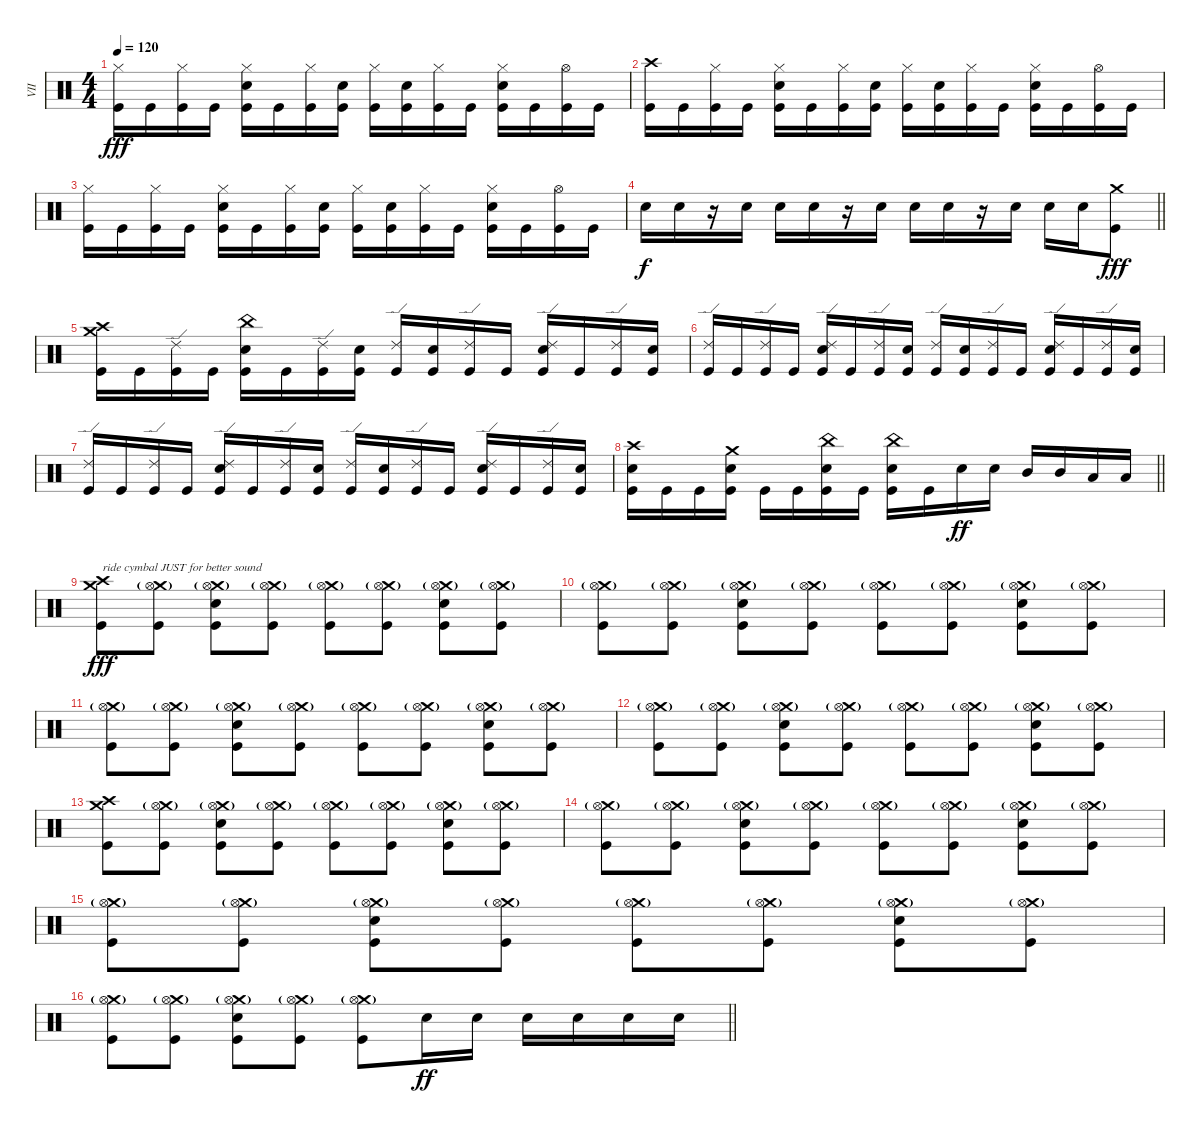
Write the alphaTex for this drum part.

\track ("VII" "VII") {instrument percussion}
\staff {score}
\articulation defaults
\ts (4 4)
\tempo 120
\clef neutral
\ks c
("Hi-Hat (closed)" "Kick (hit)").16{dy fff} "Kick (hit)".16 ("Hi-Hat (closed)" "Kick (hit)").16 "Kick (hit)".16 ("Hi-Hat (closed)" "Snare (hit) 2" "Kick (hit)").16 "Kick (hit)".16 ("Hi-Hat (closed)" "Kick (hit)").16 ("Snare (hit) 2" "Kick (hit)").16 ("Hi-Hat (closed)" "Kick (hit)").16 ("Snare (hit) 2" "Kick (hit)").16 ("Hi-Hat (closed)" "Kick (hit)").16 "Kick (hit)".16 ("Hi-Hat (closed)" "Snare (hit) 2" "Kick (hit)").16 "Kick (hit)".16 ("Hi-Hat (open)" "Kick (hit)").16 "Kick (hit)".16 |
("Crash high (hit)" "Kick (hit)").16 "Kick (hit)".16 ("Hi-Hat (closed)" "Kick (hit)").16 "Kick (hit)".16 ("Hi-Hat (closed)" "Snare (hit) 2" "Kick (hit)").16 "Kick (hit)".16 ("Hi-Hat (closed)" "Kick (hit)").16 ("Snare (hit) 2" "Kick (hit)").16 ("Hi-Hat (closed)" "Kick (hit)").16 ("Snare (hit) 2" "Kick (hit)").16 ("Hi-Hat (closed)" "Kick (hit)").16 "Kick (hit)".16 ("Hi-Hat (closed)" "Snare (hit) 2" "Kick (hit)").16 "Kick (hit)".16 ("Hi-Hat (open)" "Kick (hit)").16 "Kick (hit)".16 |
("Hi-Hat (closed)" "Kick (hit)").16 "Kick (hit)".16 ("Hi-Hat (closed)" "Kick (hit)").16 "Kick (hit)".16 ("Hi-Hat (closed)" "Snare (hit) 2" "Kick (hit)").16 "Kick (hit)".16 ("Hi-Hat (closed)" "Kick (hit)").16 ("Snare (hit) 2" "Kick (hit)").16 ("Hi-Hat (closed)" "Kick (hit)").16 ("Snare (hit) 2" "Kick (hit)").16 ("Hi-Hat (closed)" "Kick (hit)").16 "Kick (hit)".16 ("Hi-Hat (closed)" "Snare (hit) 2" "Kick (hit)").16 "Kick (hit)".16 ("Hi-Hat (open)" "Kick (hit)").16 "Kick (hit)".16 |
\barLineRight lightlight "Snare (hit) 2".16{dy f} "Snare (hit) 2".16
r.16 "Snare (hit) 2".16 "Snare (hit) 2".16 "Snare (hit) 2".16 r.16 "Snare (hit) 2".16 "Snare (hit) 2".16 "Snare (hit) 2".16 r.16 "Snare (hit) 2".16 "Snare (hit) 2".16 "Snare (hit) 2".16 ("Crash medium (hit)" "Kick (hit)").8{dy fff} |
("Crash high (hit)" "Crash medium (hit)" "Kick (hit)").16 "Kick (hit)".16 ("Ride (edge) 2" "Kick (hit)").16 "Kick (hit)".16 ("China (hit)" "Snare (hit) 2" "Kick (hit)").16 "Kick (hit)".16 ("Ride (edge) 2" "Kick (hit)").16 ("Snare (hit) 2" "Kick (hit)").16 ("Ride (edge) 2" "Kick (hit)").16 ("Snare (hit) 2" "Kick (hit)").16 ("Ride (edge) 2" "Kick (hit)").16 "Kick (hit)".16 ("Ride (edge) 2" "Snare (hit) 2" "Kick (hit)").16 "Kick (hit)".16 ("Ride (edge) 2" "Kick (hit)").16 ("Snare (hit) 2" "Kick (hit)").16 |
("Ride (edge) 2" "Kick (hit)").16 "Kick (hit)".16 ("Ride (edge) 2" "Kick (hit)").16 "Kick (hit)".16 ("Ride (edge) 2" "Snare (hit) 2" "Kick (hit)").16 "Kick (hit)".16 ("Ride (edge) 2" "Kick (hit)").16 ("Snare (hit) 2" "Kick (hit)").16 ("Ride (edge) 2" "Kick (hit)").16 ("Snare (hit) 2" "Kick (hit)").16 ("Ride (edge) 2" "Kick (hit)").16 "Kick (hit)".16 ("Ride (edge) 2" "Snare (hit) 2" "Kick (hit)").16 "Kick (hit)".16 ("Ride (edge) 2" "Kick (hit)").16 ("Snare (hit) 2" "Kick (hit)").16 |
("Ride (edge) 2" "Kick (hit)").16 "Kick (hit)".16 ("Ride (edge) 2" "Kick (hit)").16 "Kick (hit)".16 ("Ride (edge) 2" "Snare (hit) 2" "Kick (hit)").16 "Kick (hit)".16 ("Ride (edge) 2" "Kick (hit)").16 ("Snare (hit) 2" "Kick (hit)").16 ("Ride (edge) 2" "Kick (hit)").16 ("Snare (hit) 2" "Kick (hit)").16 ("Ride (edge) 2" "Kick (hit)").16 "Kick (hit)".16 ("Ride (edge) 2" "Snare (hit) 2" "Kick (hit)").16 "Kick (hit)".16 ("Ride (edge) 2" "Kick (hit)").16 ("Snare (hit) 2" "Kick (hit)").16 |
\barLineRight lightlight
("Crash high (hit)" "Snare (hit) 2" "Kick (hit)").16 "Kick (hit)".16 "Kick (hit)".16 ("Crash medium (hit)" "Snare (hit) 2" "Kick (hit)").16 "Kick (hit)".16 "Kick (hit)".16 ("China (hit)" "Snare (hit) 2" "Kick (hit)").16 "Kick (hit)".16 ("China (hit)" "Snare (hit) 2" "Kick (hit)").16 "Kick (hit)".16 "Snare (hit) 2".16{dy ff} "Snare (hit) 2".16 "Mid Tom (hit)".16 "Mid Tom (hit)".16 "Low Tom (hit)".16 "Low Tom (hit)".16 |
("Crash high (hit)" "Crash medium (hit)" "Kick (hit)").8{txt "ride cymbal JUST for better sound" dy fff} ("Crash medium (hit)"{g} "Hi-Hat (open)" "Kick (hit)").8 ("Crash medium (hit)"{g} "Hi-Hat (open)" "Snare (hit) 2" "Kick (hit)").8 ("Crash medium (hit)"{g} "Hi-Hat (open)" "Kick (hit)").8 ("Crash medium (hit)"{g} "Hi-Hat (open)" "Kick (hit)").8 ("Crash medium (hit)"{g} "Hi-Hat (open)" "Kick (hit)").8 ("Crash medium (hit)"{g} "Hi-Hat (open)" "Snare (hit) 2" "Kick (hit)").8 ("Crash medium (hit)"{g} "Hi-Hat (open)" "Kick (hit)").8 |
("Crash medium (hit)"{g} "Hi-Hat (open)" "Kick (hit)").8 ("Crash medium (hit)"{g} "Hi-Hat (open)" "Kick (hit)").8 ("Crash medium (hit)"{g} "Hi-Hat (open)" "Snare (hit) 2" "Kick (hit)").8 ("Crash medium (hit)"{g} "Hi-Hat (open)" "Kick (hit)").8 ("Crash medium (hit)"{g} "Hi-Hat (open)" "Kick (hit)").8 ("Crash medium (hit)"{g} "Hi-Hat (open)" "Kick (hit)").8 ("Crash medium (hit)"{g} "Hi-Hat (open)" "Snare (hit) 2" "Kick (hit)").8 ("Crash medium (hit)"{g} "Hi-Hat (open)" "Kick (hit)").8 |
("Crash medium (hit)"{g} "Hi-Hat (open)" "Kick (hit)").8 ("Crash medium (hit)"{g} "Hi-Hat (open)" "Kick (hit)").8 ("Crash medium (hit)"{g} "Hi-Hat (open)" "Snare (hit) 2" "Kick (hit)").8 ("Crash medium (hit)"{g} "Hi-Hat (open)" "Kick (hit)").8 ("Crash medium (hit)"{g} "Hi-Hat (open)" "Kick (hit)").8 ("Crash medium (hit)"{g} "Hi-Hat (open)" "Kick (hit)").8 ("Crash medium (hit)"{g} "Hi-Hat (open)" "Snare (hit) 2" "Kick (hit)").8 ("Crash medium (hit)"{g} "Hi-Hat (open)" "Kick (hit)").8 |
("Crash medium (hit)"{g} "Hi-Hat (open)" "Kick (hit)").8 ("Crash medium (hit)"{g} "Hi-Hat (open)" "Kick (hit)").8 ("Crash medium (hit)"{g} "Hi-Hat (open)" "Snare (hit) 2" "Kick (hit)").8 ("Crash medium (hit)"{g} "Hi-Hat (open)" "Kick (hit)").8 ("Crash medium (hit)"{g} "Hi-Hat (open)" "Kick (hit)").8 ("Crash medium (hit)"{g} "Hi-Hat (open)" "Kick (hit)").8 ("Crash medium (hit)"{g} "Hi-Hat (open)" "Snare (hit) 2" "Kick (hit)").8 ("Crash medium (hit)"{g} "Hi-Hat (open)" "Kick (hit)").8 |
("Crash high (hit)" "Crash medium (hit)" "Kick (hit)").8 ("Crash medium (hit)"{g} "Hi-Hat (open)" "Kick (hit)").8 ("Crash medium (hit)"{g} "Hi-Hat (open)" "Snare (hit) 2" "Kick (hit)").8 ("Crash medium (hit)"{g} "Hi-Hat (open)" "Kick (hit)").8 ("Crash medium (hit)"{g} "Hi-Hat (open)" "Kick (hit)").8 ("Crash medium (hit)"{g} "Hi-Hat (open)" "Kick (hit)").8 ("Crash medium (hit)"{g} "Hi-Hat (open)" "Snare (hit) 2" "Kick (hit)").8 ("Crash medium (hit)"{g} "Hi-Hat (open)" "Kick (hit)").8 |
("Crash medium (hit)"{g} "Hi-Hat (open)" "Kick (hit)").8 ("Crash medium (hit)"{g} "Hi-Hat (open)" "Kick (hit)").8 ("Crash medium (hit)"{g} "Hi-Hat (open)" "Snare (hit) 2" "Kick (hit)").8 ("Crash medium (hit)"{g} "Hi-Hat (open)" "Kick (hit)").8 ("Crash medium (hit)"{g} "Hi-Hat (open)" "Kick (hit)").8 ("Crash medium (hit)"{g} "Hi-Hat (open)" "Kick (hit)").8 ("Crash medium (hit)"{g} "Hi-Hat (open)" "Snare (hit) 2" "Kick (hit)").8 ("Crash medium (hit)"{g} "Hi-Hat (open)" "Kick (hit)").8 |
("Crash medium (hit)"{g} "Hi-Hat (open)" "Kick (hit)").8 ("Crash medium (hit)"{g} "Hi-Hat (open)" "Kick (hit)").8 ("Crash medium (hit)"{g} "Hi-Hat (open)" "Snare (hit) 2" "Kick (hit)").8 ("Crash medium (hit)"{g} "Hi-Hat (open)" "Kick (hit)").8 ("Crash medium (hit)"{g} "Hi-Hat (open)" "Kick (hit)").8 ("Crash medium (hit)"{g} "Hi-Hat (open)" "Kick (hit)").8 ("Crash medium (hit)"{g} "Hi-Hat (open)" "Snare (hit) 2" "Kick (hit)").8 ("Crash medium (hit)"{g} "Hi-Hat (open)" "Kick (hit)").8 |
\barLineRight lightlight
("Crash medium (hit)"{g} "Hi-Hat (open)" "Kick (hit)").8 ("Crash medium (hit)"{g} "Hi-Hat (open)" "Kick (hit)").8 ("Crash medium (hit)"{g} "Hi-Hat (open)" "Snare (hit) 2" "Kick (hit)").8 ("Crash medium (hit)"{g} "Hi-Hat (open)" "Kick (hit)").8 ("Crash medium (hit)"{g} "Hi-Hat (open)" "Kick (hit)").8 "Snare (hit) 2".16{dy ff} "Snare (hit) 2".16 "Snare (hit) 2".16 "Snare (hit) 2".16 "Snare (hit) 2".16 "Snare (hit) 2".16
